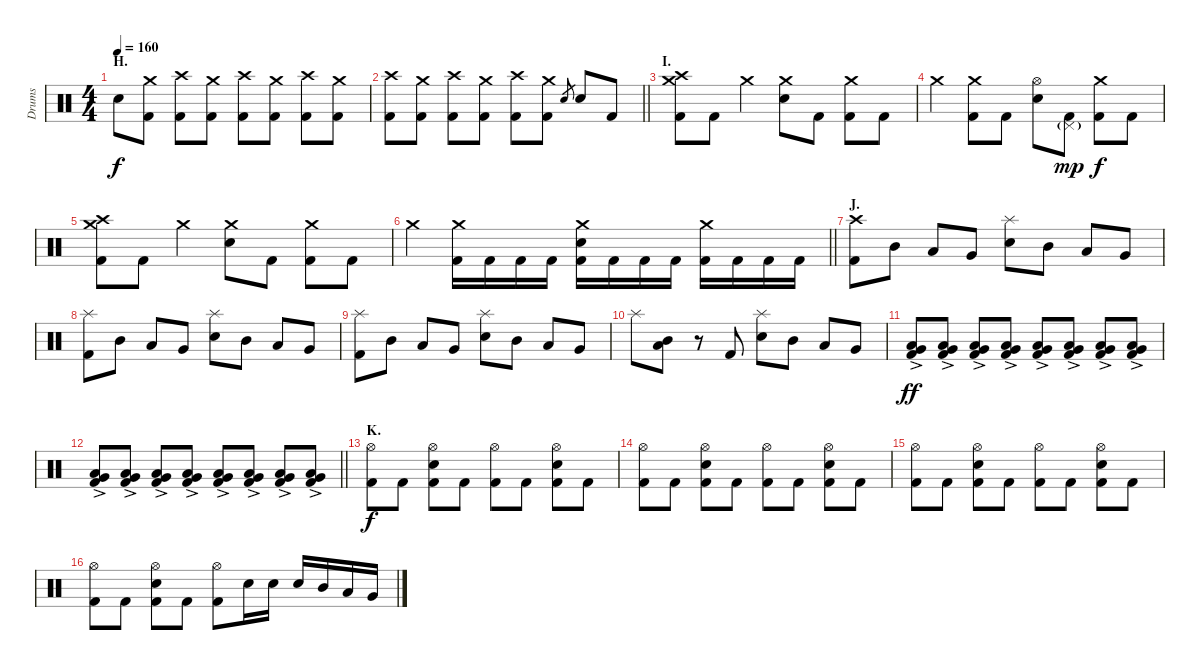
\track ("Drums" "Drums") {instrument percussion}
\staff {score}
\articulation defaults
\ts (4 4)
\section ("" "H.")
\tempo 160
\clef neutral
\ks c "Snare (hit)"{t}.8{dy f}
("Crash medium (hit)" "Kick (hit) 2").8 ("Crash high (hit)" "Kick (hit) 2").8 ("Crash medium (hit)" "Kick (hit) 2").8 ("Crash high (hit)" "Kick (hit) 2").8 ("Crash medium (hit)" "Kick (hit) 2").8 ("Crash high (hit)" "Kick (hit) 2").8 ("Crash medium (hit)" "Kick (hit) 2").8 |
\barLineRight lightlight
("Crash high (hit)" "Kick (hit) 2").8 ("Crash medium (hit)" "Kick (hit) 2").8 ("Crash high (hit)" "Kick (hit) 2").8 ("Crash medium (hit)" "Kick (hit) 2").8 ("Crash high (hit)" "Kick (hit) 2").8 ("Crash medium (hit)" "Kick (hit) 2").8 "Electric Snare (hit)".8{gr} "Electric Snare (hit)".8 "Kick (hit) 2".8 |
\section ("" "I.")
("Crash medium (hit)" "Crash high (hit)" "Kick (hit) 2").8 "Kick (hit) 2".8 "Crash medium (hit)".4 ("Crash medium (hit)" "Electric Snare (hit)").8 "Kick (hit) 2".8 ("Crash medium (hit)" "Kick (hit) 2").8 "Kick (hit) 2".8 |
"Crash medium (hit)".4 ("Crash medium (hit)" "Kick (hit) 2").8 "Kick (hit) 2".8 ("Hi-Hat (open)" "Electric Snare (hit)").8 ("Pedal Hi-Hat (hit)"{g} "Kick (hit) 2").8{dy mp} ("Crash medium (hit)" "Kick (hit) 2").8{dy f} "Kick (hit) 2".8 |
("Crash medium (hit)" "Crash high (hit)" "Kick (hit) 2").8 "Kick (hit) 2".8 "Crash medium (hit)".4 ("Crash medium (hit)" "Electric Snare (hit)").8 "Kick (hit) 2".8 ("Crash medium (hit)" "Kick (hit) 2").8 "Kick (hit) 2".8 |
\barLineRight lightlight "Crash medium (hit)".4
("Crash medium (hit)" "Kick (hit) 2").16 "Kick (hit) 2".16 "Kick (hit) 2".16 "Kick (hit) 2".16 ("Crash medium (hit)" "Electric Snare (hit)" "Kick (hit) 2").16 "Kick (hit) 2".16 "Kick (hit) 2".16 "Kick (hit) 2".16 ("Crash medium (hit)" "Kick (hit) 2").16 "Kick (hit) 2".16 "Kick (hit) 2".16 "Kick (hit) 2".16 |
\section ("" "J.")
("Crash high (hit)" "Kick (hit) 2").8 "Mid Tom (hit)".8 "Low Tom (hit)".8 "Very Low Tom (hit)".8 ("Splash (hit)" "Electric Snare (hit)").8 "Mid Tom (hit)".8 "Low Tom (hit)".8 "Very Low Tom (hit)".8 |
("Splash (hit)" "Kick (hit) 2").8 "Mid Tom (hit)".8 "Low Tom (hit)".8 "Very Low Tom (hit)".8 ("Splash (hit)" "Electric Snare (hit)").8 "Mid Tom (hit)".8 "Low Tom (hit)".8 "Very Low Tom (hit)".8 |
("Splash (hit)" "Kick (hit) 2").8 "Mid Tom (hit)".8 "Low Tom (hit)".8 "Very Low Tom (hit)".8 ("Splash (hit)" "Electric Snare (hit)").8 "Mid Tom (hit)".8 "Low Tom (hit)".8 "Very Low Tom (hit)".8 |
"Splash (hit)".8 ("Mid Tom (hit)" "Low Tom (hit)").8{bu 120} r.8 "Kick (hit) 2".8 ("Splash (hit)" "Electric Snare (hit)").8 "Mid Tom (hit)".8 "Low Tom (hit)".8 "Very Low Tom (hit)".8 |
("Very Low Tom (hit)" "Low Floor Tom (hit)"{ac} "Kick (hit) 2").8{dy ff} ("Very Low Tom (hit)" "Low Floor Tom (hit)"{ac} "Kick (hit) 2").8 ("Very Low Tom (hit)" "Low Floor Tom (hit)"{ac} "Kick (hit) 2").8 ("Very Low Tom (hit)" "Low Floor Tom (hit)"{ac} "Kick (hit) 2").8 ("Very Low Tom (hit)" "Low Floor Tom (hit)"{ac} "Kick (hit) 2").8 ("Very Low Tom (hit)" "Low Floor Tom (hit)"{ac} "Kick (hit) 2").8 ("Very Low Tom (hit)" "Low Floor Tom (hit)"{ac} "Kick (hit) 2").8 ("Very Low Tom (hit)" "Low Floor Tom (hit)"{ac} "Kick (hit) 2").8 |
\barLineRight lightlight
("Very Low Tom (hit)" "Low Floor Tom (hit)"{ac} "Kick (hit) 2").8 ("Very Low Tom (hit)" "Low Floor Tom (hit)"{ac} "Kick (hit) 2").8 ("Very Low Tom (hit)" "Low Floor Tom (hit)"{ac} "Kick (hit) 2").8 ("Very Low Tom (hit)" "Low Floor Tom (hit)"{ac} "Kick (hit) 2").8 ("Very Low Tom (hit)" "Low Floor Tom (hit)"{ac} "Kick (hit) 2").8 ("Very Low Tom (hit)" "Low Floor Tom (hit)"{ac} "Kick (hit) 2").8 ("Very Low Tom (hit)" "Low Floor Tom (hit)"{ac} "Kick (hit) 2").8 ("Very Low Tom (hit)" "Low Floor Tom (hit)"{ac} "Kick (hit) 2").8 |
\section ("" "K.")
("Hi-Hat (open)" "Kick (hit) 2").8{dy f} "Kick (hit) 2".8 ("Hi-Hat (open)" "Electric Snare (hit)" "Kick (hit) 2").8 "Kick (hit) 2".8 ("Hi-Hat (open)" "Kick (hit) 2").8 "Kick (hit) 2".8 ("Hi-Hat (open)" "Electric Snare (hit)" "Kick (hit) 2").8 "Kick (hit) 2".8 |
("Hi-Hat (open)" "Kick (hit) 2").8 "Kick (hit) 2".8 ("Hi-Hat (open)" "Electric Snare (hit)" "Kick (hit) 2").8 "Kick (hit) 2".8 ("Hi-Hat (open)" "Kick (hit) 2").8 "Kick (hit) 2".8 ("Hi-Hat (open)" "Electric Snare (hit)" "Kick (hit) 2").8 "Kick (hit) 2".8 |
("Hi-Hat (open)" "Kick (hit) 2").8 "Kick (hit) 2".8 ("Hi-Hat (open)" "Electric Snare (hit)" "Kick (hit) 2").8 "Kick (hit) 2".8 ("Hi-Hat (open)" "Kick (hit) 2").8 "Kick (hit) 2".8 ("Hi-Hat (open)" "Electric Snare (hit)" "Kick (hit) 2").8 "Kick (hit) 2".8 |
("Hi-Hat (open)" "Kick (hit) 2").8 "Kick (hit) 2".8 ("Hi-Hat (open)" "Electric Snare (hit)" "Kick (hit) 2").8 "Kick (hit) 2".8 ("Hi-Hat (open)" "Kick (hit) 2").8 "Electric Snare (hit)".16 "Electric Snare (hit)".16 "Electric Snare (hit)".16 "Mid Tom (hit)".16 "Low Tom (hit)".16 "Very Low Tom (hit)".16
